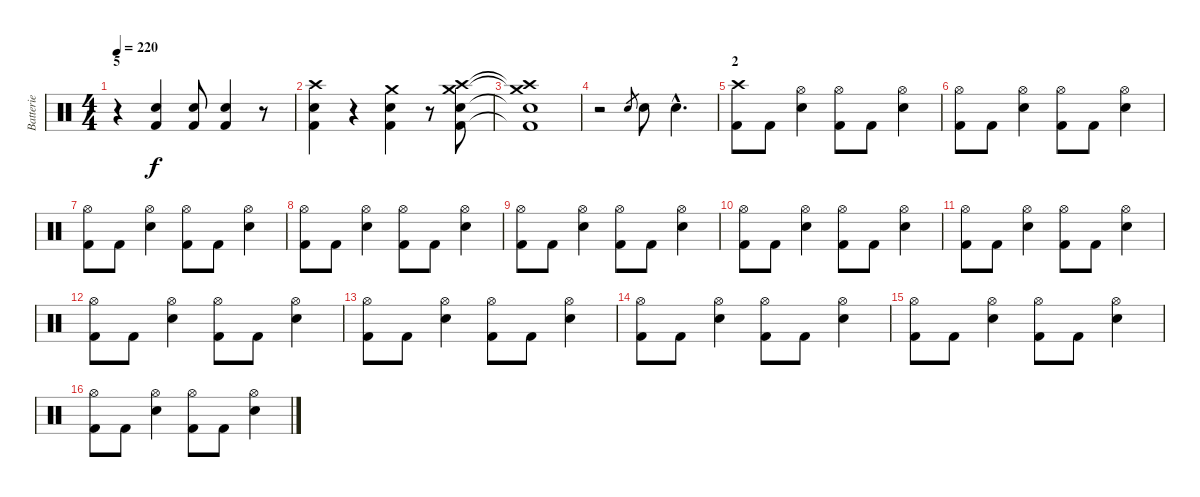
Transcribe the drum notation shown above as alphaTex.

\track ("Batterie" "Batterie") {instrument percussion}
\staff {score}
\articulation defaults
\ts (4 4)
\section ("" "5")
\tempo 220
\clef neutral
\ks c
r.4{dy f} ("Electric Snare (hit)" "Kick (hit) 2").4 ("Electric Snare (hit)" "Kick (hit) 2").8 ("Electric Snare (hit)" "Kick (hit) 2").4 r.8 |
("Crash high (hit)" "Electric Snare (hit)" "Kick (hit) 2").4 r.4 ("Crash medium (hit)" "Electric Snare (hit)" "Kick (hit) 2").4 r.8 ("Crash medium (hit)" "Crash high (hit)" "Electric Snare (hit)" "Kick (hit) 2").8 |
("Crash medium (hit)"{t} "Crash high (hit)"{t} "Electric Snare (hit)"{t} "Kick (hit) 2"{t}).1 |
r.2 "Electric Snare (hit)".8{gr} "Electric Snare (hit)".8 "Electric Snare (hit)"{hac}.4{d} |
\section ("" "2")
("Crash high (hit)" "Kick (hit) 2").8 "Kick (hit) 2".8 ("Hi-Hat (open)" "Electric Snare (hit)").4 ("Hi-Hat (open)" "Kick (hit) 2").8 "Kick (hit) 2".8 ("Hi-Hat (open)" "Electric Snare (hit)").4 |
("Hi-Hat (open)" "Kick (hit) 2").8 "Kick (hit) 2".8 ("Hi-Hat (open)" "Electric Snare (hit)").4 ("Hi-Hat (open)" "Kick (hit) 2").8 "Kick (hit) 2".8 ("Hi-Hat (open)" "Electric Snare (hit)").4 |
("Hi-Hat (open)" "Kick (hit) 2").8 "Kick (hit) 2".8 ("Hi-Hat (open)" "Electric Snare (hit)").4 ("Hi-Hat (open)" "Kick (hit) 2").8 "Kick (hit) 2".8 ("Hi-Hat (open)" "Electric Snare (hit)").4 |
("Hi-Hat (open)" "Kick (hit) 2").8 "Kick (hit) 2".8 ("Hi-Hat (open)" "Electric Snare (hit)").4 ("Hi-Hat (open)" "Kick (hit) 2").8 "Kick (hit) 2".8 ("Hi-Hat (open)" "Electric Snare (hit)").4 |
("Hi-Hat (open)" "Kick (hit) 2").8 "Kick (hit) 2".8 ("Hi-Hat (open)" "Electric Snare (hit)").4 ("Hi-Hat (open)" "Kick (hit) 2").8 "Kick (hit) 2".8 ("Hi-Hat (open)" "Electric Snare (hit)").4 |
("Hi-Hat (open)" "Kick (hit) 2").8 "Kick (hit) 2".8 ("Hi-Hat (open)" "Electric Snare (hit)").4 ("Hi-Hat (open)" "Kick (hit) 2").8 "Kick (hit) 2".8 ("Hi-Hat (open)" "Electric Snare (hit)").4 |
("Hi-Hat (open)" "Kick (hit) 2").8 "Kick (hit) 2".8 ("Hi-Hat (open)" "Electric Snare (hit)").4 ("Hi-Hat (open)" "Kick (hit) 2").8 "Kick (hit) 2".8 ("Hi-Hat (open)" "Electric Snare (hit)").4 |
("Hi-Hat (open)" "Kick (hit) 2").8 "Kick (hit) 2".8 ("Hi-Hat (open)" "Electric Snare (hit)").4 ("Hi-Hat (open)" "Kick (hit) 2").8 "Kick (hit) 2".8 ("Hi-Hat (open)" "Electric Snare (hit)").4 |
("Hi-Hat (open)" "Kick (hit) 2").8 "Kick (hit) 2".8 ("Hi-Hat (open)" "Electric Snare (hit)").4 ("Hi-Hat (open)" "Kick (hit) 2").8 "Kick (hit) 2".8 ("Hi-Hat (open)" "Electric Snare (hit)").4 |
("Hi-Hat (open)" "Kick (hit) 2").8 "Kick (hit) 2".8 ("Hi-Hat (open)" "Electric Snare (hit)").4 ("Hi-Hat (open)" "Kick (hit) 2").8 "Kick (hit) 2".8 ("Hi-Hat (open)" "Electric Snare (hit)").4 |
("Hi-Hat (open)" "Kick (hit) 2").8 "Kick (hit) 2".8 ("Hi-Hat (open)" "Electric Snare (hit)").4 ("Hi-Hat (open)" "Kick (hit) 2").8 "Kick (hit) 2".8 ("Hi-Hat (open)" "Electric Snare (hit)").4 |
("Hi-Hat (open)" "Kick (hit) 2").8 "Kick (hit) 2".8 ("Hi-Hat (open)" "Electric Snare (hit)").4 ("Hi-Hat (open)" "Kick (hit) 2").8 "Kick (hit) 2".8 ("Hi-Hat (open)" "Electric Snare (hit)").4
